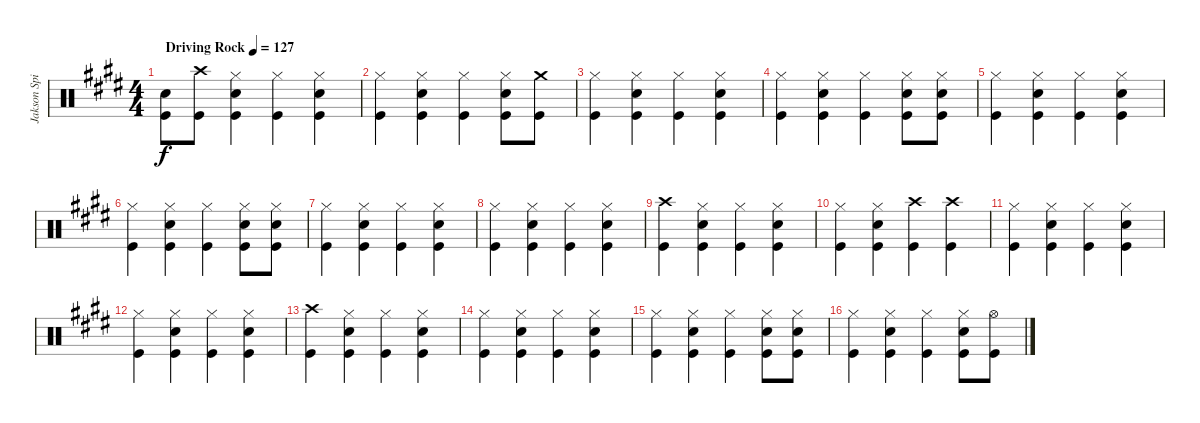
\track ("Jakson Spiers Drums" "Jakson Spi") {instrument percussion}
\staff {score}
\articulation defaults
\ts (4 4)
\tempo (127 "Driving Rock")
\clef neutral
\ks e
("Snare (hit) 2" "Kick (hit)").8{dy f} ("Crash high (hit)" "Kick (hit)").8 ("Hi-Hat (closed)" "Snare (hit) 2" "Kick (hit)").4 ("Hi-Hat (closed)" "Kick (hit)").4 ("Hi-Hat (closed)" "Snare (hit) 2" "Kick (hit)").4 |
("Hi-Hat (closed)" "Kick (hit)").4 ("Hi-Hat (closed)" "Snare (hit) 2" "Kick (hit)").4 ("Hi-Hat (closed)" "Kick (hit)").4 ("Hi-Hat (closed)" "Snare (hit) 2" "Kick (hit)").8 ("Crash medium (hit)" "Kick (hit)").8 |
("Hi-Hat (closed)" "Kick (hit)").4 ("Hi-Hat (closed)" "Snare (hit) 2" "Kick (hit)").4 ("Hi-Hat (closed)" "Kick (hit)").4 ("Hi-Hat (closed)" "Snare (hit) 2" "Kick (hit)").4 |
("Hi-Hat (closed)" "Kick (hit)").4 ("Hi-Hat (closed)" "Snare (hit) 2" "Kick (hit)").4 ("Hi-Hat (closed)" "Kick (hit)").4 ("Hi-Hat (closed)" "Snare (hit) 2" "Kick (hit)").8 ("Hi-Hat (closed)" "Snare (hit) 2" "Kick (hit)").8 |
("Hi-Hat (closed)" "Kick (hit)").4 ("Hi-Hat (closed)" "Snare (hit) 2" "Kick (hit)").4 ("Hi-Hat (closed)" "Kick (hit)").4 ("Hi-Hat (closed)" "Snare (hit) 2" "Kick (hit)").4 |
("Hi-Hat (closed)" "Kick (hit)").4 ("Hi-Hat (closed)" "Snare (hit) 2" "Kick (hit)").4 ("Hi-Hat (closed)" "Kick (hit)").4 ("Hi-Hat (closed)" "Snare (hit) 2" "Kick (hit)").8 ("Hi-Hat (closed)" "Snare (hit) 2" "Kick (hit)").8 |
("Hi-Hat (closed)" "Kick (hit)").4 ("Hi-Hat (closed)" "Snare (hit) 2" "Kick (hit)").4 ("Hi-Hat (closed)" "Kick (hit)").4 ("Hi-Hat (closed)" "Snare (hit) 2" "Kick (hit)").4 |
("Hi-Hat (closed)" "Kick (hit)").4 ("Hi-Hat (closed)" "Snare (hit) 2" "Kick (hit)").4 ("Hi-Hat (closed)" "Kick (hit)").4 ("Hi-Hat (closed)" "Snare (hit) 2" "Kick (hit)").4 |
("Crash high (hit)" "Kick (hit)").4 ("Hi-Hat (closed)" "Snare (hit) 2" "Kick (hit)").4 ("Hi-Hat (closed)" "Kick (hit)").4 ("Hi-Hat (closed)" "Snare (hit) 2" "Kick (hit)").4 |
("Hi-Hat (closed)" "Kick (hit)").4 ("Hi-Hat (closed)" "Snare (hit) 2" "Kick (hit)").4 ("Crash high (hit)" "Kick (hit)").4 ("Crash high (hit)" "Kick (hit)").4 |
("Hi-Hat (closed)" "Kick (hit)").4 ("Hi-Hat (closed)" "Snare (hit) 2" "Kick (hit)").4 ("Hi-Hat (closed)" "Kick (hit)").4 ("Hi-Hat (closed)" "Snare (hit) 2" "Kick (hit)").4 |
("Hi-Hat (closed)" "Kick (hit)").4 ("Hi-Hat (closed)" "Snare (hit) 2" "Kick (hit)").4 ("Hi-Hat (closed)" "Kick (hit)").4 ("Hi-Hat (closed)" "Snare (hit) 2" "Kick (hit)").4 |
("Crash high (hit)" "Kick (hit)").4 ("Hi-Hat (closed)" "Snare (hit) 2" "Kick (hit)").4 ("Hi-Hat (closed)" "Kick (hit)").4 ("Hi-Hat (closed)" "Snare (hit) 2" "Kick (hit)").4 |
("Hi-Hat (closed)" "Kick (hit)").4 ("Hi-Hat (closed)" "Snare (hit) 2" "Kick (hit)").4 ("Hi-Hat (closed)" "Kick (hit)").4 ("Hi-Hat (closed)" "Snare (hit) 2" "Kick (hit)").4 |
("Hi-Hat (closed)" "Kick (hit)").4 ("Hi-Hat (closed)" "Snare (hit) 2" "Kick (hit)").4 ("Hi-Hat (closed)" "Kick (hit)").4 ("Hi-Hat (closed)" "Snare (hit) 2" "Kick (hit)").8 ("Hi-Hat (closed)" "Snare (hit) 2" "Kick (hit)").8 |
("Hi-Hat (closed)" "Kick (hit)").4 ("Hi-Hat (closed)" "Snare (hit) 2" "Kick (hit)").4 ("Hi-Hat (closed)" "Kick (hit)").4 ("Hi-Hat (closed)" "Snare (hit) 2" "Kick (hit)").8 ("Hi-Hat (open)" "Kick (hit)").8
